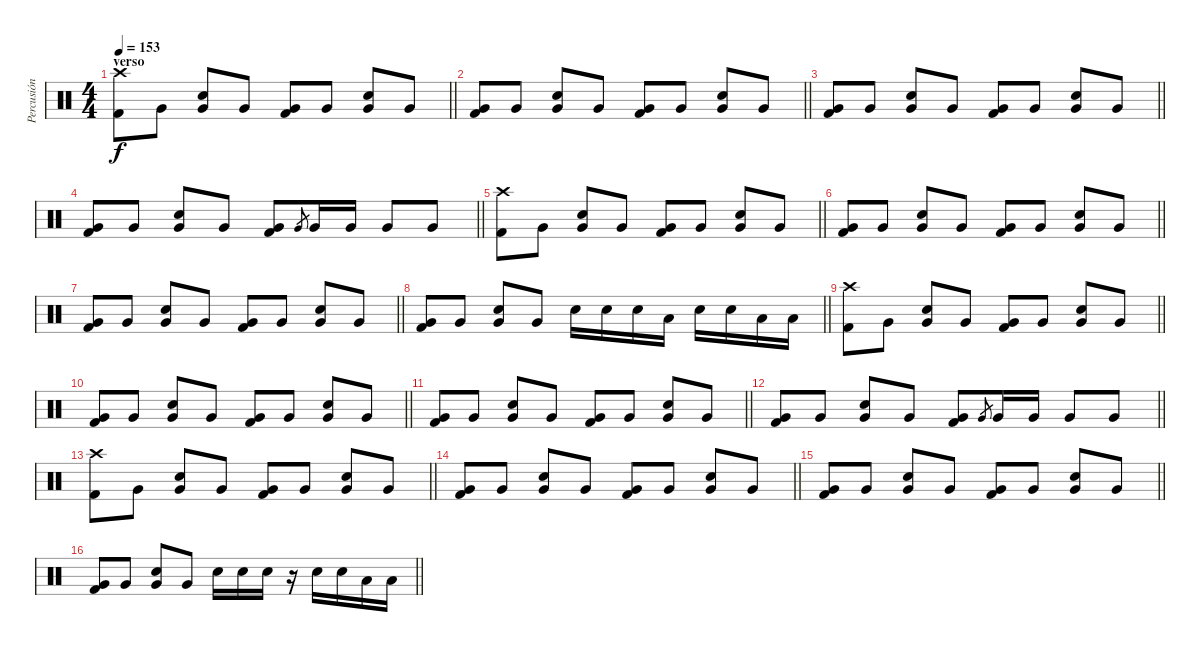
\track ("Percusión" "Percusión") {instrument percussion}
\staff {score}
\articulation defaults
\ts (4 4)
\section ("" "verso")
\tempo 153
\clef neutral
\barLineRight lightlight
\ks c
("Crash high (hit)" "Kick (hit) 2").8{dy f} "Very Low Tom (hit)".8 ("Very Low Tom (hit)" "Snare (hit) 2").8 "Very Low Tom (hit)".8 ("Very Low Tom (hit)" "Kick (hit) 2").8 "Very Low Tom (hit)".8 ("Very Low Tom (hit)" "Snare (hit) 2").8 "Very Low Tom (hit)".8 |
\barLineRight lightlight
("Very Low Tom (hit)" "Kick (hit) 2").8 "Very Low Tom (hit)".8 ("Very Low Tom (hit)" "Snare (hit) 2").8 "Very Low Tom (hit)".8 ("Very Low Tom (hit)" "Kick (hit) 2").8 "Very Low Tom (hit)".8 ("Very Low Tom (hit)" "Snare (hit) 2").8 "Very Low Tom (hit)".8 |
\barLineRight lightlight
("Very Low Tom (hit)" "Kick (hit) 2").8 "Very Low Tom (hit)".8 ("Very Low Tom (hit)" "Snare (hit) 2").8 "Very Low Tom (hit)".8 ("Very Low Tom (hit)" "Kick (hit) 2").8 "Very Low Tom (hit)".8 ("Very Low Tom (hit)" "Snare (hit) 2").8 "Very Low Tom (hit)".8 |
\barLineRight lightlight
("Very Low Tom (hit)" "Kick (hit) 2").8 "Very Low Tom (hit)".8 ("Very Low Tom (hit)" "Snare (hit) 2").8 "Very Low Tom (hit)".8 ("Very Low Tom (hit)" "Kick (hit) 2").8 "Very Low Tom (hit)".8{gr} "Very Low Tom (hit)".16 "Very Low Tom (hit)".16 "Very Low Tom (hit)".8 "Very Low Tom (hit)".8 |
\barLineRight lightlight
("Crash high (hit)" "Kick (hit) 2").8 "Very Low Tom (hit)".8 ("Very Low Tom (hit)" "Snare (hit) 2").8 "Very Low Tom (hit)".8 ("Very Low Tom (hit)" "Kick (hit) 2").8 "Very Low Tom (hit)".8 ("Very Low Tom (hit)" "Snare (hit) 2").8 "Very Low Tom (hit)".8 |
\barLineRight lightlight
("Very Low Tom (hit)" "Kick (hit) 2").8 "Very Low Tom (hit)".8 ("Very Low Tom (hit)" "Snare (hit) 2").8 "Very Low Tom (hit)".8 ("Very Low Tom (hit)" "Kick (hit) 2").8 "Very Low Tom (hit)".8 ("Very Low Tom (hit)" "Snare (hit) 2").8 "Very Low Tom (hit)".8 |
\barLineRight lightlight
("Very Low Tom (hit)" "Kick (hit) 2").8 "Very Low Tom (hit)".8 ("Very Low Tom (hit)" "Snare (hit) 2").8 "Very Low Tom (hit)".8 ("Very Low Tom (hit)" "Kick (hit) 2").8 "Very Low Tom (hit)".8 ("Very Low Tom (hit)" "Snare (hit) 2").8 "Very Low Tom (hit)".8 |
\barLineRight lightlight
("Very Low Tom (hit)" "Kick (hit) 2").8 "Very Low Tom (hit)".8 ("Very Low Tom (hit)" "Snare (hit) 2").8 "Very Low Tom (hit)".8 "Snare (hit) 2".16 "Snare (hit) 2".16 "Snare (hit) 2".16 "Low Tom (hit)".16 "Snare (hit) 2".16 "Snare (hit) 2".16 "Low Tom (hit)".16 "Low Tom (hit)".16 |
\barLineRight lightlight
("Crash high (hit)" "Kick (hit) 2").8 "Very Low Tom (hit)".8 ("Very Low Tom (hit)" "Snare (hit) 2").8 "Very Low Tom (hit)".8 ("Very Low Tom (hit)" "Kick (hit) 2").8 "Very Low Tom (hit)".8 ("Very Low Tom (hit)" "Snare (hit) 2").8 "Very Low Tom (hit)".8 |
\barLineRight lightlight
("Very Low Tom (hit)" "Kick (hit) 2").8 "Very Low Tom (hit)".8 ("Very Low Tom (hit)" "Snare (hit) 2").8 "Very Low Tom (hit)".8 ("Very Low Tom (hit)" "Kick (hit) 2").8 "Very Low Tom (hit)".8 ("Very Low Tom (hit)" "Snare (hit) 2").8 "Very Low Tom (hit)".8 |
\barLineRight lightlight
("Very Low Tom (hit)" "Kick (hit) 2").8 "Very Low Tom (hit)".8 ("Very Low Tom (hit)" "Snare (hit) 2").8 "Very Low Tom (hit)".8 ("Very Low Tom (hit)" "Kick (hit) 2").8 "Very Low Tom (hit)".8 ("Very Low Tom (hit)" "Snare (hit) 2").8 "Very Low Tom (hit)".8 |
\barLineRight lightlight
("Very Low Tom (hit)" "Kick (hit) 2").8 "Very Low Tom (hit)".8 ("Very Low Tom (hit)" "Snare (hit) 2").8 "Very Low Tom (hit)".8 ("Very Low Tom (hit)" "Kick (hit) 2").8 "Very Low Tom (hit)".8{gr} "Very Low Tom (hit)".16 "Very Low Tom (hit)".16 "Very Low Tom (hit)".8 "Very Low Tom (hit)".8 |
\barLineRight lightlight
("Crash high (hit)" "Kick (hit) 2").8 "Very Low Tom (hit)".8 ("Very Low Tom (hit)" "Snare (hit) 2").8 "Very Low Tom (hit)".8 ("Very Low Tom (hit)" "Kick (hit) 2").8 "Very Low Tom (hit)".8 ("Very Low Tom (hit)" "Snare (hit) 2").8 "Very Low Tom (hit)".8 |
\barLineRight lightlight
("Very Low Tom (hit)" "Kick (hit) 2").8 "Very Low Tom (hit)".8 ("Very Low Tom (hit)" "Snare (hit) 2").8 "Very Low Tom (hit)".8 ("Very Low Tom (hit)" "Kick (hit) 2").8 "Very Low Tom (hit)".8 ("Very Low Tom (hit)" "Snare (hit) 2").8 "Very Low Tom (hit)".8 |
\barLineRight lightlight
("Very Low Tom (hit)" "Kick (hit) 2").8 "Very Low Tom (hit)".8 ("Very Low Tom (hit)" "Snare (hit) 2").8 "Very Low Tom (hit)".8 ("Very Low Tom (hit)" "Kick (hit) 2").8 "Very Low Tom (hit)".8 ("Very Low Tom (hit)" "Snare (hit) 2").8 "Very Low Tom (hit)".8 |
\barLineRight lightlight
("Very Low Tom (hit)" "Kick (hit) 2").8 "Very Low Tom (hit)".8 ("Very Low Tom (hit)" "Snare (hit) 2").8 "Very Low Tom (hit)".8 "Snare (hit) 2".16 "Snare (hit) 2".16 "Snare (hit) 2".16 r.16 "Snare (hit) 2".16 "Snare (hit) 2".16 "Low Tom (hit)".16 "Low Tom (hit)".16
